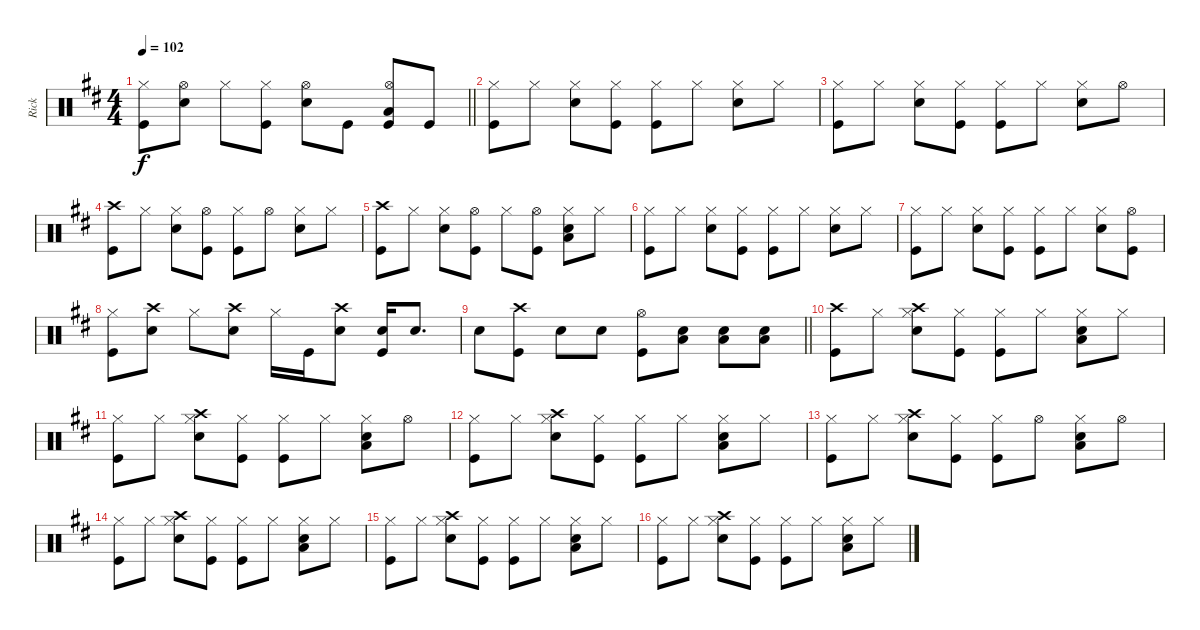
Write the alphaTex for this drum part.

\track ("Rick" "Rick") {instrument percussion}
\staff {score}
\articulation defaults
\ts (4 4)
\tempo 102
\clef neutral
\barLineRight lightlight
\ks d
("Hi-Hat (closed)" "Kick (hit)").8{dy f} ("Hi-Hat (open)" "Snare (hit) 2").8 "Hi-Hat (closed)".8 ("Hi-Hat (closed)" "Kick (hit)").8 ("Hi-Hat (open)" "Snare (hit) 2").8 "Kick (hit)".8 ("Hi-Hat (open)" "Low Tom (hit)" "Kick (hit)").8 "Kick (hit)".8 |
("Hi-Hat (closed)" "Kick (hit)").8 "Hi-Hat (closed)".8 ("Hi-Hat (closed)" "Snare (hit) 2").8 ("Hi-Hat (closed)" "Kick (hit)").8 ("Hi-Hat (closed)" "Kick (hit)").8 "Hi-Hat (closed)".8 ("Hi-Hat (closed)" "Snare (hit) 2").8 "Hi-Hat (closed)".8 |
("Hi-Hat (closed)" "Kick (hit)").8 "Hi-Hat (closed)".8 ("Hi-Hat (closed)" "Snare (hit) 2").8 ("Hi-Hat (closed)" "Kick (hit)").8 ("Hi-Hat (closed)" "Kick (hit)").8 "Hi-Hat (closed)".8 ("Hi-Hat (closed)" "Snare (hit) 2").8 "Hi-Hat (open)".8 |
("Crash high (hit)" "Kick (hit)").8 "Hi-Hat (closed)".8 ("Hi-Hat (closed)" "Snare (hit) 2").8 ("Hi-Hat (open)" "Kick (hit)").8 ("Hi-Hat (closed)" "Kick (hit)").8 "Hi-Hat (open)".8 ("Hi-Hat (closed)" "Snare (hit) 2").8 "Hi-Hat (closed)".8 |
("Crash high (hit)" "Kick (hit)").8 "Hi-Hat (closed)".8 ("Hi-Hat (closed)" "Snare (hit) 2").8 ("Hi-Hat (open)" "Kick (hit)").8 "Hi-Hat (closed)".8 ("Hi-Hat (open)" "Kick (hit)").8 ("Hi-Hat (closed)" "Snare (hit) 2" "Low Tom (hit)").8 "Hi-Hat (closed)".8 |
("Hi-Hat (closed)" "Kick (hit)").8 "Hi-Hat (closed)".8 ("Hi-Hat (closed)" "Snare (hit) 2").8 ("Hi-Hat (closed)" "Kick (hit)").8 ("Hi-Hat (closed)" "Kick (hit)").8 "Hi-Hat (closed)".8 ("Hi-Hat (closed)" "Snare (hit) 2").8 "Hi-Hat (closed)".8 |
("Hi-Hat (closed)" "Kick (hit)").8 "Hi-Hat (closed)".8 ("Hi-Hat (closed)" "Snare (hit) 2").8 ("Hi-Hat (closed)" "Kick (hit)").8 ("Hi-Hat (closed)" "Kick (hit)").8 "Hi-Hat (closed)".8 ("Hi-Hat (closed)" "Snare (hit) 2").8 ("Hi-Hat (open)" "Kick (hit)").8 |
("Hi-Hat (closed)" "Kick (hit)").8 ("Crash high (hit)" "Snare (hit) 2").8 "Hi-Hat (closed)".8 ("Crash high (hit)" "Snare (hit) 2").8 "Hi-Hat (closed)".16 "Kick (hit)".16 ("Crash high (hit)" "Snare (hit) 2").8 ("Snare (hit) 2" "Kick (hit)").16 "Snare (hit) 2".8{d} |
\barLineRight lightlight "Snare (hit) 2".8
("Crash high (hit)" "Kick (hit)").8 "Snare (hit) 2".8 "Snare (hit) 2".8 ("Hi-Hat (open)" "Kick (hit)").8 ("Snare (hit) 2" "Low Tom (hit)").8 ("Snare (hit) 2" "Low Tom (hit)").8 ("Snare (hit) 2" "Low Tom (hit)").8 |
("Crash high (hit)" "Kick (hit)").8 "Hi-Hat (closed)".8 ("Crash high (hit)" "Hi-Hat (closed)" "Snare (hit) 2").8 ("Hi-Hat (closed)" "Kick (hit)").8 ("Hi-Hat (closed)" "Kick (hit)").8 "Hi-Hat (closed)".8 ("Hi-Hat (closed)" "Snare (hit) 2" "Low Tom (hit)").8 "Hi-Hat (closed)".8 |
("Hi-Hat (closed)" "Kick (hit)").8 "Hi-Hat (closed)".8 ("Crash high (hit)" "Hi-Hat (closed)" "Snare (hit) 2").8 ("Hi-Hat (closed)" "Kick (hit)").8 ("Hi-Hat (closed)" "Kick (hit)").8 "Hi-Hat (closed)".8 ("Hi-Hat (closed)" "Snare (hit) 2" "Low Tom (hit)").8 "Hi-Hat (open)".8 |
("Hi-Hat (closed)" "Kick (hit)").8 "Hi-Hat (closed)".8 ("Crash high (hit)" "Hi-Hat (closed)" "Snare (hit) 2").8 ("Hi-Hat (closed)" "Kick (hit)").8 ("Hi-Hat (closed)" "Kick (hit)").8 "Hi-Hat (closed)".8 ("Hi-Hat (closed)" "Snare (hit) 2" "Low Tom (hit)").8 "Hi-Hat (closed)".8 |
("Hi-Hat (closed)" "Kick (hit)").8 "Hi-Hat (closed)".8 ("Crash high (hit)" "Hi-Hat (closed)" "Snare (hit) 2").8 ("Hi-Hat (closed)" "Kick (hit)").8 ("Hi-Hat (closed)" "Kick (hit)").8 "Hi-Hat (open)".8 ("Hi-Hat (closed)" "Snare (hit) 2" "Low Tom (hit)").8 "Hi-Hat (open)".8 |
("Hi-Hat (closed)" "Kick (hit)").8 "Hi-Hat (closed)".8 ("Crash high (hit)" "Hi-Hat (closed)" "Snare (hit) 2").8 ("Hi-Hat (closed)" "Kick (hit)").8 ("Hi-Hat (closed)" "Kick (hit)").8 "Hi-Hat (closed)".8 ("Hi-Hat (closed)" "Snare (hit) 2" "Low Tom (hit)").8 "Hi-Hat (closed)".8 |
("Hi-Hat (closed)" "Kick (hit)").8 "Hi-Hat (closed)".8 ("Crash high (hit)" "Hi-Hat (closed)" "Snare (hit) 2").8 ("Hi-Hat (closed)" "Kick (hit)").8 ("Hi-Hat (closed)" "Kick (hit)").8 "Hi-Hat (closed)".8 ("Hi-Hat (closed)" "Snare (hit) 2" "Low Tom (hit)").8 "Hi-Hat (closed)".8 |
("Hi-Hat (closed)" "Kick (hit)").8 "Hi-Hat (closed)".8 ("Crash high (hit)" "Hi-Hat (closed)" "Snare (hit) 2").8 ("Hi-Hat (closed)" "Kick (hit)").8 ("Hi-Hat (closed)" "Kick (hit)").8 "Hi-Hat (closed)".8 ("Hi-Hat (closed)" "Snare (hit) 2" "Low Tom (hit)").8 "Hi-Hat (closed)".8
